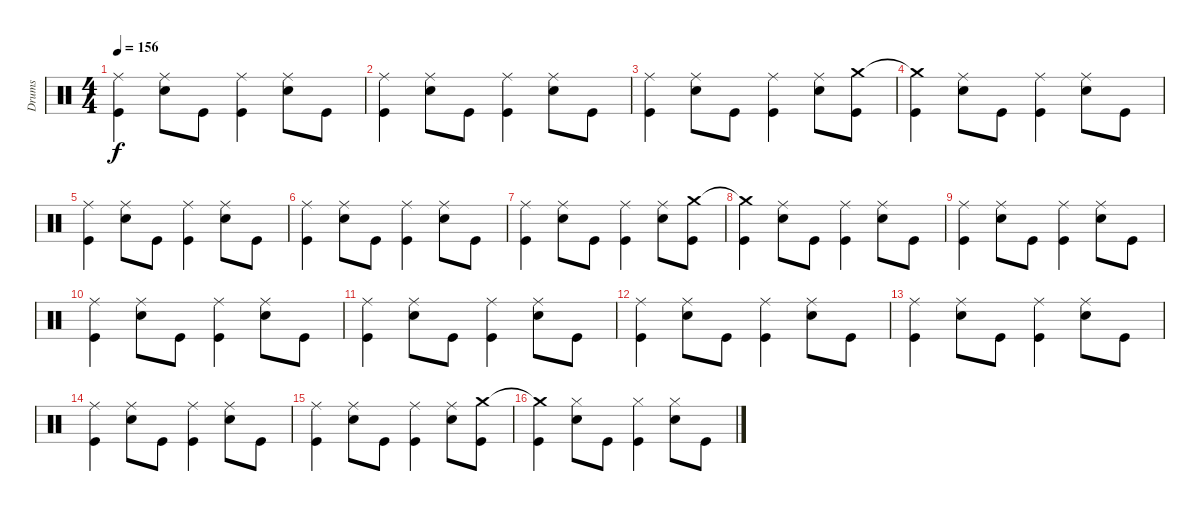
\track ("Drums" "Drums") {instrument percussion}
\staff {score}
\articulation defaults
\ts (4 4)
\tempo 156
\clef neutral
\ks c
("Ride (middle)" "Kick (hit)").4{dy f} ("Ride (middle)" "Snare (hit) 2").8 "Kick (hit)".8 ("Ride (middle)" "Kick (hit)").4 ("Ride (middle)" "Snare (hit) 2").8 "Kick (hit)".8 |
("Ride (middle)" "Kick (hit)").4 ("Ride (middle)" "Snare (hit) 2").8 "Kick (hit)".8 ("Ride (middle)" "Kick (hit)").4 ("Ride (middle)" "Snare (hit) 2").8 "Kick (hit)".8 |
("Ride (middle)" "Kick (hit)").4 ("Ride (middle)" "Snare (hit) 2").8 "Kick (hit)".8 ("Ride (middle)" "Kick (hit)").4 ("Ride (middle)" "Snare (hit) 2").8 ("Crash medium (hit)" "Kick (hit)").8 |
("Crash medium (hit)"{t} "Kick (hit)").4 ("Ride (middle)" "Snare (hit) 2").8 "Kick (hit)".8 ("Ride (middle)" "Kick (hit)").4 ("Ride (middle)" "Snare (hit) 2").8 "Kick (hit)".8 |
("Ride (middle)" "Kick (hit)").4 ("Ride (middle)" "Snare (hit) 2").8 "Kick (hit)".8 ("Ride (middle)" "Kick (hit)").4 ("Ride (middle)" "Snare (hit) 2").8 "Kick (hit)".8 |
("Ride (middle)" "Kick (hit)").4 ("Ride (middle)" "Snare (hit) 2").8 "Kick (hit)".8 ("Ride (middle)" "Kick (hit)").4 ("Ride (middle)" "Snare (hit) 2").8 "Kick (hit)".8 |
("Ride (middle)" "Kick (hit)").4 ("Ride (middle)" "Snare (hit) 2").8 "Kick (hit)".8 ("Ride (middle)" "Kick (hit)").4 ("Ride (middle)" "Snare (hit) 2").8 ("Crash medium (hit)" "Kick (hit)").8 |
("Crash medium (hit)"{t} "Kick (hit)").4 ("Ride (middle)" "Snare (hit) 2").8 "Kick (hit)".8 ("Ride (middle)" "Kick (hit)").4 ("Ride (middle)" "Snare (hit) 2").8 "Kick (hit)".8 |
("Ride (middle)" "Kick (hit)").4 ("Ride (middle)" "Snare (hit) 2").8 "Kick (hit)".8 ("Ride (middle)" "Kick (hit)").4 ("Ride (middle)" "Snare (hit) 2").8 "Kick (hit)".8 |
("Ride (middle)" "Kick (hit)").4 ("Ride (middle)" "Snare (hit) 2").8 "Kick (hit)".8 ("Ride (middle)" "Kick (hit)").4 ("Ride (middle)" "Snare (hit) 2").8 "Kick (hit)".8 |
("Ride (middle)" "Kick (hit)").4 ("Ride (middle)" "Snare (hit) 2").8 "Kick (hit)".8 ("Ride (middle)" "Kick (hit)").4 ("Ride (middle)" "Snare (hit) 2").8 "Kick (hit)".8 |
("Ride (middle)" "Kick (hit)").4 ("Ride (middle)" "Snare (hit) 2").8 "Kick (hit)".8 ("Ride (middle)" "Kick (hit)").4 ("Ride (middle)" "Snare (hit) 2").8 "Kick (hit)".8 |
("Ride (middle)" "Kick (hit)").4 ("Ride (middle)" "Snare (hit) 2").8 "Kick (hit)".8 ("Ride (middle)" "Kick (hit)").4 ("Ride (middle)" "Snare (hit) 2").8 "Kick (hit)".8 |
("Ride (middle)" "Kick (hit)").4 ("Ride (middle)" "Snare (hit) 2").8 "Kick (hit)".8 ("Ride (middle)" "Kick (hit)").4 ("Ride (middle)" "Snare (hit) 2").8 "Kick (hit)".8 |
("Ride (middle)" "Kick (hit)").4 ("Ride (middle)" "Snare (hit) 2").8 "Kick (hit)".8 ("Ride (middle)" "Kick (hit)").4 ("Ride (middle)" "Snare (hit) 2").8 ("Crash medium (hit)" "Kick (hit)").8 |
("Crash medium (hit)"{t} "Kick (hit)").4 ("Hi-Hat (closed)" "Snare (hit) 2").8 "Kick (hit)".8 ("Hi-Hat (closed)" "Kick (hit)").4 ("Hi-Hat (closed)" "Snare (hit) 2").8 "Kick (hit)".8
